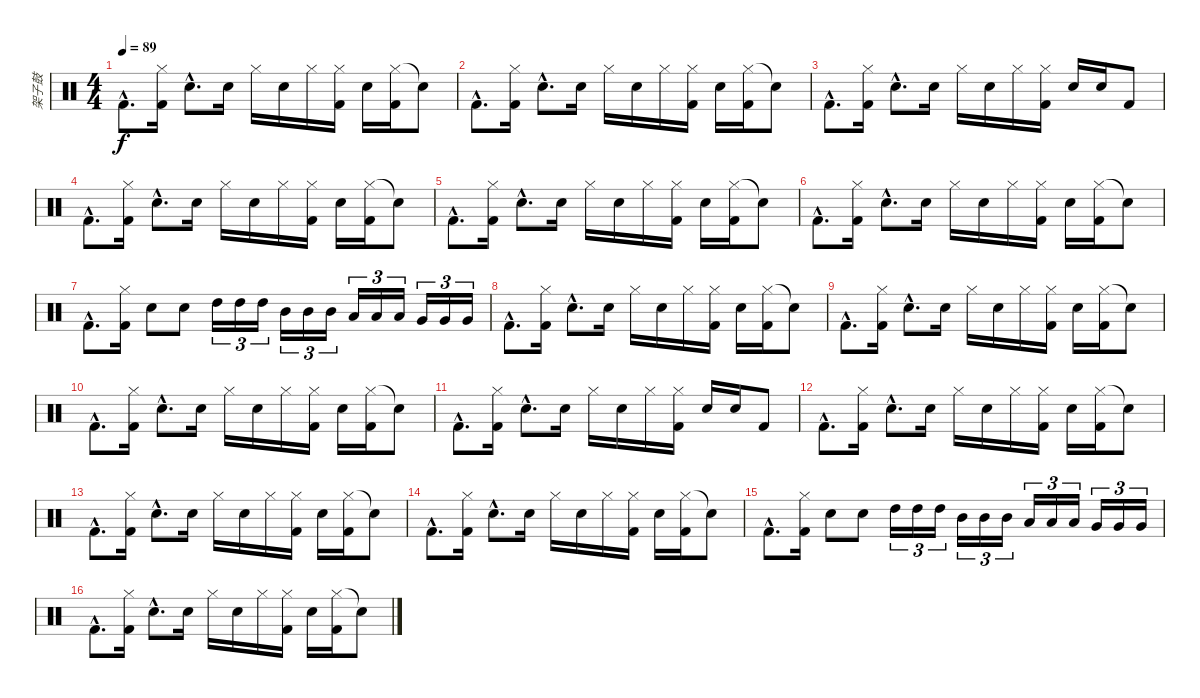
\track ("架子鼓" "架子鼓") {instrument percussion}
\staff {score}
\articulation defaults
\ts (4 4)
\tempo 89
\clef neutral
\ks c "Kick (hit) 2"{hac}.8{d dy f}
("Hi-Hat (closed)" "Kick (hit) 2").16 "Snare (hit) 2"{hac}.8{d} "Snare (hit) 2".16 "Hi-Hat (closed)".16 "Snare (hit) 2".16 "Hi-Hat (closed)".16 ("Hi-Hat (closed)" "Kick (hit) 2").16 "Snare (hit) 2".16 ("Hi-Hat (closed)" "Kick (hit) 2").16 "Snare (hit)"{t}.8 |
"Kick (hit) 2"{hac}.8{d} ("Hi-Hat (closed)" "Kick (hit) 2").16 "Snare (hit) 2"{hac}.8{d} "Snare (hit) 2".16 "Hi-Hat (closed)".16 "Snare (hit) 2".16 "Hi-Hat (closed)".16 ("Hi-Hat (closed)" "Kick (hit) 2").16 "Snare (hit) 2".16 ("Hi-Hat (closed)" "Kick (hit) 2").16 "Snare (hit)"{t}.8 |
"Kick (hit) 2"{hac}.8{d} ("Hi-Hat (closed)" "Kick (hit) 2").16 "Snare (hit) 2"{hac}.8{d} "Snare (hit) 2".16 "Hi-Hat (closed)".16 "Snare (hit) 2".16 "Hi-Hat (closed)".16 ("Hi-Hat (closed)" "Kick (hit) 2").16 "Snare (hit) 2".16 "Snare (hit) 2".16 "Kick (hit) 2".8 |
"Kick (hit) 2"{hac}.8{d} ("Hi-Hat (closed)" "Kick (hit) 2").16 "Snare (hit) 2"{hac}.8{d} "Snare (hit) 2".16 "Hi-Hat (closed)".16 "Snare (hit) 2".16 "Hi-Hat (closed)".16 ("Hi-Hat (closed)" "Kick (hit) 2").16 "Snare (hit) 2".16 ("Hi-Hat (closed)" "Kick (hit) 2").16 "Snare (hit)"{t}.8 |
"Kick (hit) 2"{hac}.8{d} ("Hi-Hat (closed)" "Kick (hit) 2").16 "Snare (hit) 2"{hac}.8{d} "Snare (hit) 2".16 "Hi-Hat (closed)".16 "Snare (hit) 2".16 "Hi-Hat (closed)".16 ("Hi-Hat (closed)" "Kick (hit) 2").16 "Snare (hit) 2".16 ("Hi-Hat (closed)" "Kick (hit) 2").16 "Snare (hit)"{t}.8 |
"Kick (hit) 2"{hac}.8{d} ("Hi-Hat (closed)" "Kick (hit) 2").16 "Snare (hit) 2"{hac}.8{d} "Snare (hit) 2".16 "Hi-Hat (closed)".16 "Snare (hit) 2".16 "Hi-Hat (closed)".16 ("Hi-Hat (closed)" "Kick (hit) 2").16 "Snare (hit) 2".16 ("Hi-Hat (closed)" "Kick (hit) 2").16 "Snare (hit)"{t}.8 |
"Kick (hit) 2"{hac}.8{d} ("Hi-Hat (closed)" "Kick (hit) 2").16 "Snare (hit) 2".8 "Snare (hit) 2".8 "High Tom (hit)".16{tu (3 2)} "High Tom (hit)".16{tu (3 2)} "High Tom (hit)".16{tu (3 2)} "Mid Tom (hit)".16{tu (3 2)} "Mid Tom (hit)".16{tu (3 2)} "Mid Tom (hit)".16{tu (3 2)} "Low Tom (hit)".16{tu (3 2)} "Low Tom (hit)".16{tu (3 2)} "Low Tom (hit)".16{tu (3 2)} "Very Low Tom (hit)".16{tu (3 2)} "Very Low Tom (hit)".16{tu (3 2)} "Very Low Tom (hit)".16{tu (3 2)} |
"Kick (hit) 2"{hac}.8{d} ("Hi-Hat (closed)" "Kick (hit) 2").16 "Snare (hit) 2"{hac}.8{d} "Snare (hit) 2".16 "Hi-Hat (closed)".16 "Snare (hit) 2".16 "Hi-Hat (closed)".16 ("Hi-Hat (closed)" "Kick (hit) 2").16 "Snare (hit) 2".16 ("Hi-Hat (closed)" "Kick (hit) 2").16 "Snare (hit)"{t}.8 |
"Kick (hit) 2"{hac}.8{d} ("Hi-Hat (closed)" "Kick (hit) 2").16 "Snare (hit) 2"{hac}.8{d} "Snare (hit) 2".16 "Hi-Hat (closed)".16 "Snare (hit) 2".16 "Hi-Hat (closed)".16 ("Hi-Hat (closed)" "Kick (hit) 2").16 "Snare (hit) 2".16 ("Hi-Hat (closed)" "Kick (hit) 2").16 "Snare (hit)"{t}.8 |
"Kick (hit) 2"{hac}.8{d} ("Hi-Hat (closed)" "Kick (hit) 2").16 "Snare (hit) 2"{hac}.8{d} "Snare (hit) 2".16 "Hi-Hat (closed)".16 "Snare (hit) 2".16 "Hi-Hat (closed)".16 ("Hi-Hat (closed)" "Kick (hit) 2").16 "Snare (hit) 2".16 ("Hi-Hat (closed)" "Kick (hit) 2").16 "Snare (hit)"{t}.8 |
"Kick (hit) 2"{hac}.8{d} ("Hi-Hat (closed)" "Kick (hit) 2").16 "Snare (hit) 2"{hac}.8{d} "Snare (hit) 2".16 "Hi-Hat (closed)".16 "Snare (hit) 2".16 "Hi-Hat (closed)".16 ("Hi-Hat (closed)" "Kick (hit) 2").16 "Snare (hit) 2".16 "Snare (hit) 2".16 "Kick (hit) 2".8 |
"Kick (hit) 2"{hac}.8{d} ("Hi-Hat (closed)" "Kick (hit) 2").16 "Snare (hit) 2"{hac}.8{d} "Snare (hit) 2".16 "Hi-Hat (closed)".16 "Snare (hit) 2".16 "Hi-Hat (closed)".16 ("Hi-Hat (closed)" "Kick (hit) 2").16 "Snare (hit) 2".16 ("Hi-Hat (closed)" "Kick (hit) 2").16 "Snare (hit)"{t}.8 |
"Kick (hit) 2"{hac}.8{d} ("Hi-Hat (closed)" "Kick (hit) 2").16 "Snare (hit) 2"{hac}.8{d} "Snare (hit) 2".16 "Hi-Hat (closed)".16 "Snare (hit) 2".16 "Hi-Hat (closed)".16 ("Hi-Hat (closed)" "Kick (hit) 2").16 "Snare (hit) 2".16 ("Hi-Hat (closed)" "Kick (hit) 2").16 "Snare (hit)"{t}.8 |
"Kick (hit) 2"{hac}.8{d} ("Hi-Hat (closed)" "Kick (hit) 2").16 "Snare (hit) 2"{hac}.8{d} "Snare (hit) 2".16 "Hi-Hat (closed)".16 "Snare (hit) 2".16 "Hi-Hat (closed)".16 ("Hi-Hat (closed)" "Kick (hit) 2").16 "Snare (hit) 2".16 ("Hi-Hat (closed)" "Kick (hit) 2").16 "Snare (hit)"{t}.8 |
"Kick (hit) 2"{hac}.8{d} ("Hi-Hat (closed)" "Kick (hit) 2").16 "Snare (hit) 2".8 "Snare (hit) 2".8 "High Tom (hit)".16{tu (3 2)} "High Tom (hit)".16{tu (3 2)} "High Tom (hit)".16{tu (3 2)} "Mid Tom (hit)".16{tu (3 2)} "Mid Tom (hit)".16{tu (3 2)} "Mid Tom (hit)".16{tu (3 2)} "Low Tom (hit)".16{tu (3 2)} "Low Tom (hit)".16{tu (3 2)} "Low Tom (hit)".16{tu (3 2)} "Very Low Tom (hit)".16{tu (3 2)} "Very Low Tom (hit)".16{tu (3 2)} "Very Low Tom (hit)".16{tu (3 2)} |
"Kick (hit) 2"{hac}.8{d} ("Hi-Hat (closed)" "Kick (hit) 2").16 "Snare (hit) 2"{hac}.8{d} "Snare (hit) 2".16 "Hi-Hat (closed)".16 "Snare (hit) 2".16 "Hi-Hat (closed)".16 ("Hi-Hat (closed)" "Kick (hit) 2").16 "Snare (hit) 2".16 ("Hi-Hat (closed)" "Kick (hit) 2").16 "Snare (hit)"{t}.8
